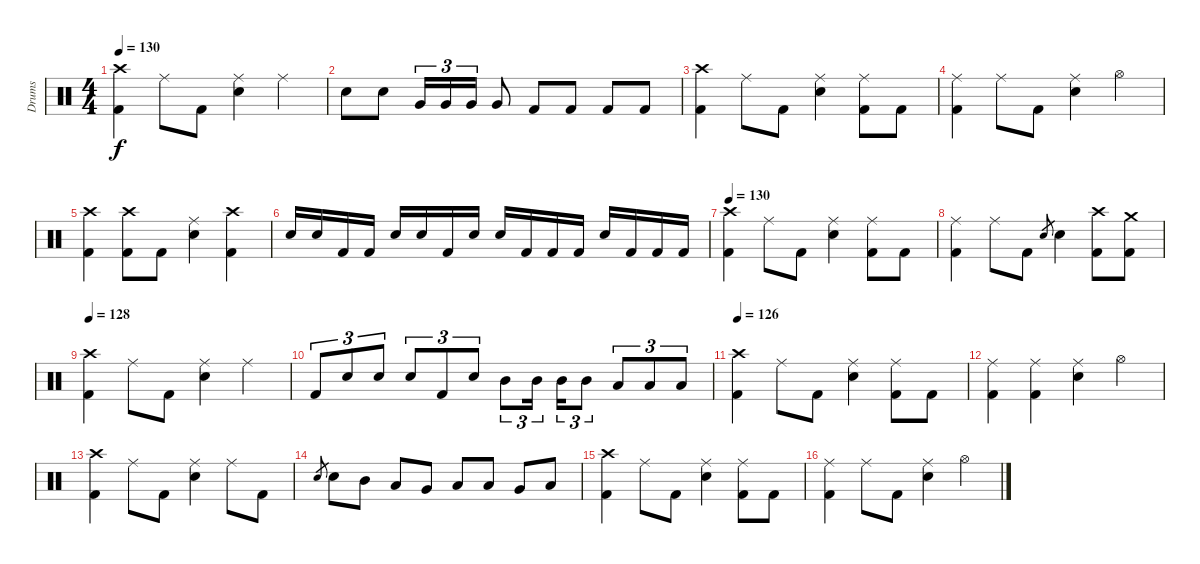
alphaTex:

\track ("Drums" "Drums") {instrument percussion}
\staff {score}
\articulation defaults
\ts (4 4)
\tempo 130
\clef neutral
\ks c
("Crash high (hit)" "Kick (hit) 2").4{dy f} "Ride (middle)".8 "Kick (hit) 2".8 ("Ride (middle)" "Electric Snare (hit)").4 "Ride (middle)".4 |
"Electric Snare (hit)".8 "Electric Snare (hit)".8 "Very Low Tom (hit)".16{tu (3 2)} "Very Low Tom (hit)".16{tu (3 2)} "Very Low Tom (hit)".16{tu (3 2)} "Very Low Tom (hit)".8 "Kick (hit) 2".8 "Kick (hit) 2".8 "Kick (hit) 2".8 "Kick (hit) 2".8 |
("Crash high (hit)" "Kick (hit) 2").4 "Ride (middle)".8 "Kick (hit) 2".8 ("Ride (middle)" "Electric Snare (hit)").4 ("Ride (middle)" "Kick (hit) 2").8 "Kick (hit) 2".8 |
("Ride (middle)" "Kick (hit) 2").4 "Ride (middle)".8 "Kick (hit) 2".8 ("Ride (middle)" "Electric Snare (hit)").4 "Hi-Hat (open)".4 |
("Crash high (hit)" "Kick (hit) 2").4 ("Crash high (hit)" "Kick (hit) 2").8 "Kick (hit) 2".8 ("Ride (middle)" "Electric Snare (hit)").4 ("Crash high (hit)" "Kick (hit) 2").4 |
"Electric Snare (hit)".16 "Electric Snare (hit)".16 "Kick (hit) 2".16 "Kick (hit) 2".16 "Electric Snare (hit)".16 "Electric Snare (hit)".16 "Kick (hit) 2".16 "Electric Snare (hit)".16 "Electric Snare (hit)".16 "Kick (hit) 2".16 "Kick (hit) 2".16 "Kick (hit) 2".16 "Electric Snare (hit)".16 "Kick (hit) 2".16 "Kick (hit) 2".16 "Kick (hit) 2".16 |
\tempo 130
("Crash high (hit)" "Kick (hit) 2").4 "Ride (middle)".8 "Kick (hit) 2".8 ("Ride (middle)" "Electric Snare (hit)").4 ("Ride (middle)" "Kick (hit) 2").8 "Kick (hit) 2".8 |
("Ride (middle)" "Kick (hit) 2").4 "Ride (middle)".8 "Kick (hit) 2".8 "Electric Snare (hit)".8{gr} "Electric Snare (hit)".4 ("Crash high (hit)" "Kick (hit) 2").8 ("Crash medium (hit)" "Kick (hit) 2").8 |
\tempo 128
("Crash high (hit)" "Kick (hit) 2").4 "Ride (middle)".8 "Kick (hit) 2".8 ("Ride (middle)" "Electric Snare (hit)").4 "Ride (middle)".4 |
"Kick (hit) 2".8{tu (3 2)} "Electric Snare (hit)".8{tu (3 2)} "Electric Snare (hit)".8{tu (3 2)} "Electric Snare (hit)".8{tu (3 2)} "Kick (hit) 2".8{tu (3 2)} "Electric Snare (hit)".8{tu (3 2)} "Mid Tom (hit)".8{tu (3 2)} "Mid Tom (hit)".16{tu (3 2)} "Mid Tom (hit)".16{tu (3 2)} "Mid Tom (hit)".8{tu (3 2)} "Low Tom (hit)".8{tu (3 2)} "Low Tom (hit)".8{tu (3 2)} "Low Tom (hit)".8{tu (3 2)} |
\tempo 126
("Crash high (hit)" "Kick (hit) 2").4 "Ride (middle)".8 "Kick (hit) 2".8 ("Ride (middle)" "Electric Snare (hit)").4 ("Ride (middle)" "Kick (hit) 2").8 "Kick (hit) 2".8 |
("Ride (middle)" "Kick (hit) 2").4 ("Ride (middle)" "Kick (hit) 2").4 ("Ride (middle)" "Electric Snare (hit)").4 "Hi-Hat (open)".4 |
("Crash high (hit)" "Kick (hit) 2").4 "Ride (middle)".8 "Kick (hit) 2".8 ("Ride (middle)" "Electric Snare (hit)").4 "Ride (middle)".8 "Kick (hit) 2".8 |
"Electric Snare (hit)".8{gr} "Electric Snare (hit)".8 "Mid Tom (hit)".8 "Low Tom (hit)".8 "Very Low Tom (hit)".8 "Low Tom (hit)".8 "Low Tom (hit)".8 "Very Low Tom (hit)".8 "Low Floor Tom (hit)".8 |
("Crash high (hit)" "Kick (hit) 2").4 "Ride (middle)".8 "Kick (hit) 2".8 ("Ride (middle)" "Electric Snare (hit)").4 ("Ride (middle)" "Kick (hit) 2").8 "Kick (hit) 2".8 |
("Ride (middle)" "Kick (hit) 2").4 "Ride (middle)".8 "Kick (hit) 2".8 ("Ride (middle)" "Electric Snare (hit)").4 "Hi-Hat (open)".4
